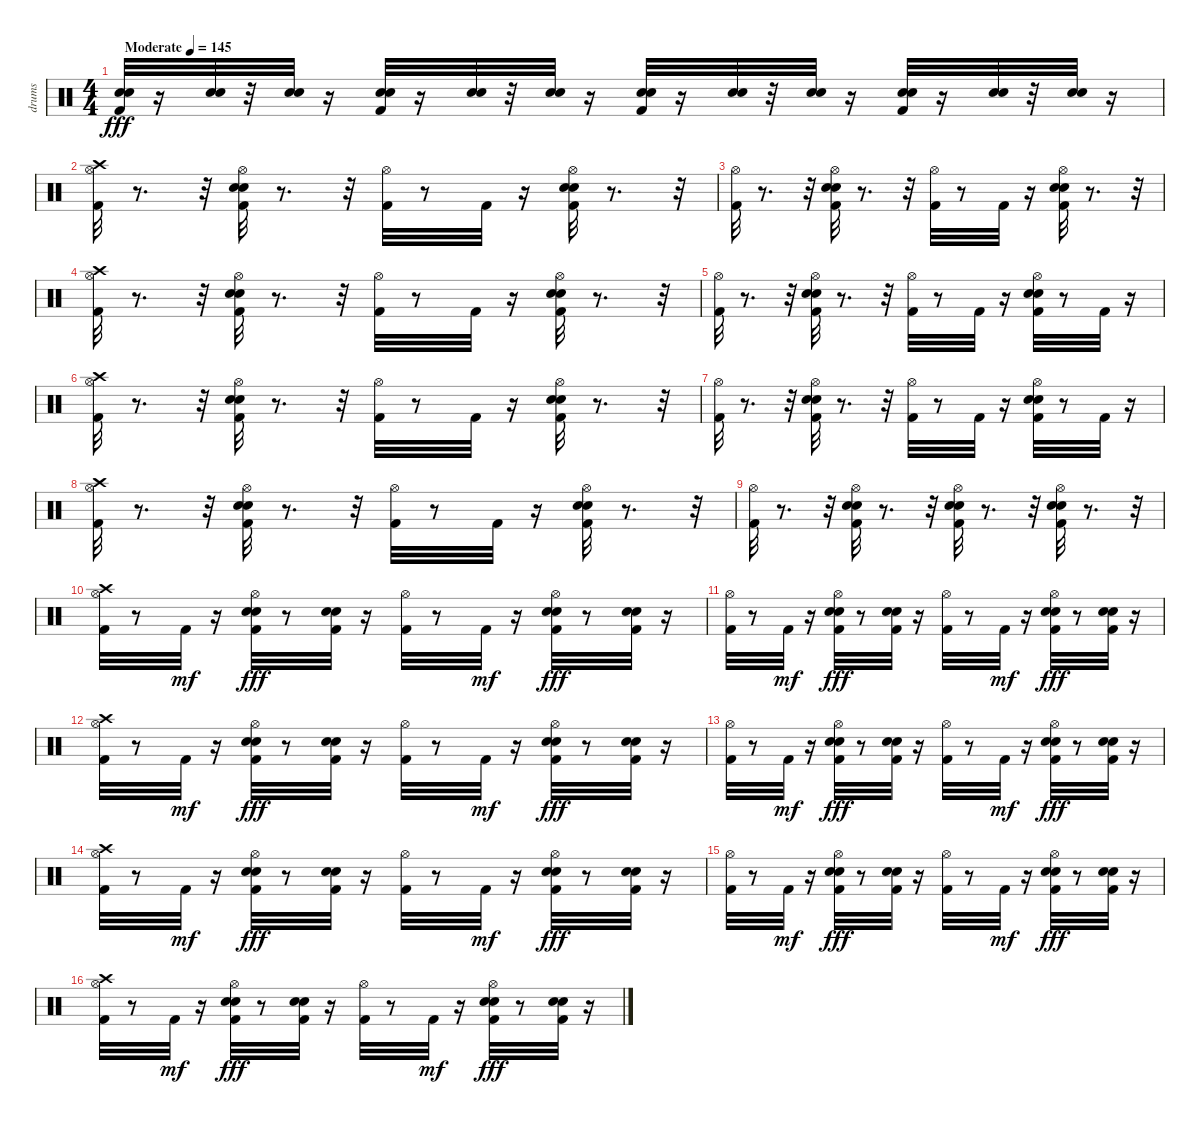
\track ("drums" "drums") {instrument percussion}
\staff {score}
\articulation defaults
\ts (4 4)
\tempo (145 "Moderate")
\clef neutral
\ks c
("Kick (hit) 2" "Snare (hit) 2" "Electric Snare (hit)").32{dy fff} r.16 ("Snare (hit) 2" "Electric Snare (hit)").32 r.32 ("Snare (hit) 2" "Electric Snare (hit)").32 r.16 ("Snare (hit) 2" "Electric Snare (hit)" "Kick (hit) 2").32 r.16 ("Snare (hit) 2" "Electric Snare (hit)").32 r.32 ("Snare (hit) 2" "Electric Snare (hit)").32 r.16 ("Snare (hit) 2" "Electric Snare (hit)" "Kick (hit) 2").32 r.16 ("Snare (hit) 2" "Electric Snare (hit)").32 r.32 ("Snare (hit) 2" "Electric Snare (hit)").32 r.16 ("Snare (hit) 2" "Electric Snare (hit)" "Kick (hit) 2").32 r.16 ("Snare (hit) 2" "Electric Snare (hit)").32 r.32 ("Snare (hit) 2" "Electric Snare (hit)").32 r.16 |
("Crash high (hit)" "Hi-Hat (open)" "Kick (hit) 2").32 r.8{d} r.32 ("Hi-Hat (open)" "Kick (hit) 2" "Snare (hit) 2" "Electric Snare (hit)").32 r.8{d} r.32 ("Hi-Hat (open)" "Kick (hit) 2").32 r.8 "Kick (hit) 2".32 r.16 ("Hi-Hat (open)" "Kick (hit) 2" "Snare (hit) 2" "Electric Snare (hit)").32 r.8{d} r.32 |
("Kick (hit) 2" "Hi-Hat (open)").32 r.8{d} r.32 ("Hi-Hat (open)" "Kick (hit) 2" "Snare (hit) 2" "Electric Snare (hit)").32 r.8{d} r.32 ("Hi-Hat (open)" "Kick (hit) 2").32 r.8 "Kick (hit) 2".32 r.16 ("Hi-Hat (open)" "Kick (hit) 2" "Snare (hit) 2" "Electric Snare (hit)").32 r.8{d} r.32 |
("Kick (hit) 2" "Hi-Hat (open)" "Crash high (hit)").32 r.8{d} r.32 ("Hi-Hat (open)" "Kick (hit) 2" "Snare (hit) 2" "Electric Snare (hit)").32 r.8{d} r.32 ("Hi-Hat (open)" "Kick (hit) 2").32 r.8 "Kick (hit) 2".32 r.16 ("Hi-Hat (open)" "Kick (hit) 2" "Snare (hit) 2" "Electric Snare (hit)").32 r.8{d} r.32 |
("Kick (hit) 2" "Hi-Hat (open)").32 r.8{d} r.32 ("Hi-Hat (open)" "Kick (hit) 2" "Snare (hit) 2" "Electric Snare (hit)").32 r.8{d} r.32 ("Hi-Hat (open)" "Kick (hit) 2").32 r.8 "Kick (hit) 2".32 r.16 ("Hi-Hat (open)" "Kick (hit) 2" "Snare (hit) 2" "Electric Snare (hit)").32 r.8 "Kick (hit) 2".32 r.16 |
("Kick (hit) 2" "Hi-Hat (open)" "Crash high (hit)").32 r.8{d} r.32 ("Hi-Hat (open)" "Kick (hit) 2" "Snare (hit) 2" "Electric Snare (hit)").32 r.8{d} r.32 ("Hi-Hat (open)" "Kick (hit) 2").32 r.8 "Kick (hit) 2".32 r.16 ("Hi-Hat (open)" "Kick (hit) 2" "Snare (hit) 2" "Electric Snare (hit)").32 r.8{d} r.32 |
("Kick (hit) 2" "Hi-Hat (open)").32 r.8{d} r.32 ("Hi-Hat (open)" "Kick (hit) 2" "Snare (hit) 2" "Electric Snare (hit)").32 r.8{d} r.32 ("Hi-Hat (open)" "Kick (hit) 2").32 r.8 "Kick (hit) 2".32 r.16 ("Hi-Hat (open)" "Kick (hit) 2" "Snare (hit) 2" "Electric Snare (hit)").32 r.8 "Kick (hit) 2".32 r.16 |
("Kick (hit) 2" "Hi-Hat (open)" "Crash high (hit)").32 r.8{d} r.32 ("Hi-Hat (open)" "Kick (hit) 2" "Snare (hit) 2" "Electric Snare (hit)").32 r.8{d} r.32 ("Hi-Hat (open)" "Kick (hit) 2").32 r.8 "Kick (hit) 2".32 r.16 ("Hi-Hat (open)" "Kick (hit) 2" "Snare (hit) 2" "Electric Snare (hit)").32 r.8{d} r.32 |
("Kick (hit) 2" "Hi-Hat (open)").32 r.8{d} r.32 ("Hi-Hat (open)" "Kick (hit) 2" "Snare (hit) 2" "Electric Snare (hit)").32 r.8{d} r.32 ("Hi-Hat (open)" "Kick (hit) 2" "Snare (hit) 2" "Electric Snare (hit)").32 r.8{d} r.32 ("Hi-Hat (open)" "Kick (hit) 2" "Snare (hit) 2" "Electric Snare (hit)").32 r.8{d} r.32 |
("Hi-Hat (open)" "Crash high (hit)" "Kick (hit) 2").32 r.8 "Kick (hit) 2".32{dy mf} r.16 ("Kick (hit) 2" "Hi-Hat (open)" "Snare (hit) 2" "Electric Snare (hit)").32{dy fff} r.8 ("Kick (hit) 2" "Snare (hit) 2" "Electric Snare (hit)").32 r.16 ("Kick (hit) 2" "Hi-Hat (open)").32 r.8 "Kick (hit) 2".32{dy mf} r.16 ("Kick (hit) 2" "Hi-Hat (open)" "Snare (hit) 2" "Electric Snare (hit)").32{dy fff} r.8 ("Kick (hit) 2" "Snare (hit) 2" "Electric Snare (hit)").32 r.16 |
("Hi-Hat (open)" "Kick (hit) 2").32 r.8 "Kick (hit) 2".32{dy mf} r.16 ("Kick (hit) 2" "Hi-Hat (open)" "Snare (hit) 2" "Electric Snare (hit)").32{dy fff} r.8 ("Kick (hit) 2" "Snare (hit) 2" "Electric Snare (hit)").32 r.16 ("Kick (hit) 2" "Hi-Hat (open)").32 r.8 "Kick (hit) 2".32{dy mf} r.16 ("Kick (hit) 2" "Hi-Hat (open)" "Snare (hit) 2" "Electric Snare (hit)").32{dy fff} r.8 ("Kick (hit) 2" "Snare (hit) 2" "Electric Snare (hit)").32 r.16 |
("Hi-Hat (open)" "Crash high (hit)" "Kick (hit) 2").32 r.8 "Kick (hit) 2".32{dy mf} r.16 ("Kick (hit) 2" "Hi-Hat (open)" "Snare (hit) 2" "Electric Snare (hit)").32{dy fff} r.8 ("Kick (hit) 2" "Snare (hit) 2" "Electric Snare (hit)").32 r.16 ("Kick (hit) 2" "Hi-Hat (open)").32 r.8 "Kick (hit) 2".32{dy mf} r.16 ("Kick (hit) 2" "Hi-Hat (open)" "Snare (hit) 2" "Electric Snare (hit)").32{dy fff} r.8 ("Kick (hit) 2" "Snare (hit) 2" "Electric Snare (hit)").32 r.16 |
("Hi-Hat (open)" "Kick (hit) 2").32 r.8 "Kick (hit) 2".32{dy mf} r.16 ("Kick (hit) 2" "Hi-Hat (open)" "Snare (hit) 2" "Electric Snare (hit)").32{dy fff} r.8 ("Kick (hit) 2" "Snare (hit) 2" "Electric Snare (hit)").32 r.16 ("Kick (hit) 2" "Hi-Hat (open)").32 r.8 "Kick (hit) 2".32{dy mf} r.16 ("Kick (hit) 2" "Hi-Hat (open)" "Snare (hit) 2" "Electric Snare (hit)").32{dy fff} r.8 ("Kick (hit) 2" "Snare (hit) 2" "Electric Snare (hit)").32 r.16 |
("Hi-Hat (open)" "Crash high (hit)" "Kick (hit) 2").32 r.8 "Kick (hit) 2".32{dy mf} r.16 ("Kick (hit) 2" "Hi-Hat (open)" "Snare (hit) 2" "Electric Snare (hit)").32{dy fff} r.8 ("Kick (hit) 2" "Snare (hit) 2" "Electric Snare (hit)").32 r.16 ("Kick (hit) 2" "Hi-Hat (open)").32 r.8 "Kick (hit) 2".32{dy mf} r.16 ("Kick (hit) 2" "Hi-Hat (open)" "Snare (hit) 2" "Electric Snare (hit)").32{dy fff} r.8 ("Kick (hit) 2" "Snare (hit) 2" "Electric Snare (hit)").32 r.16 |
("Hi-Hat (open)" "Kick (hit) 2").32 r.8 "Kick (hit) 2".32{dy mf} r.16 ("Kick (hit) 2" "Hi-Hat (open)" "Snare (hit) 2" "Electric Snare (hit)").32{dy fff} r.8 ("Kick (hit) 2" "Snare (hit) 2" "Electric Snare (hit)").32 r.16 ("Kick (hit) 2" "Hi-Hat (open)").32 r.8 "Kick (hit) 2".32{dy mf} r.16 ("Kick (hit) 2" "Hi-Hat (open)" "Snare (hit) 2" "Electric Snare (hit)").32{dy fff} r.8 ("Kick (hit) 2" "Snare (hit) 2" "Electric Snare (hit)").32 r.16 |
("Hi-Hat (open)" "Crash high (hit)" "Kick (hit) 2").32 r.8 "Kick (hit) 2".32{dy mf} r.16 ("Kick (hit) 2" "Hi-Hat (open)" "Snare (hit) 2" "Electric Snare (hit)").32{dy fff} r.8 ("Kick (hit) 2" "Snare (hit) 2" "Electric Snare (hit)").32 r.16 ("Kick (hit) 2" "Hi-Hat (open)").32 r.8 "Kick (hit) 2".32{dy mf} r.16 ("Kick (hit) 2" "Hi-Hat (open)" "Snare (hit) 2" "Electric Snare (hit)").32{dy fff} r.8 ("Kick (hit) 2" "Snare (hit) 2" "Electric Snare (hit)").32 r.16
